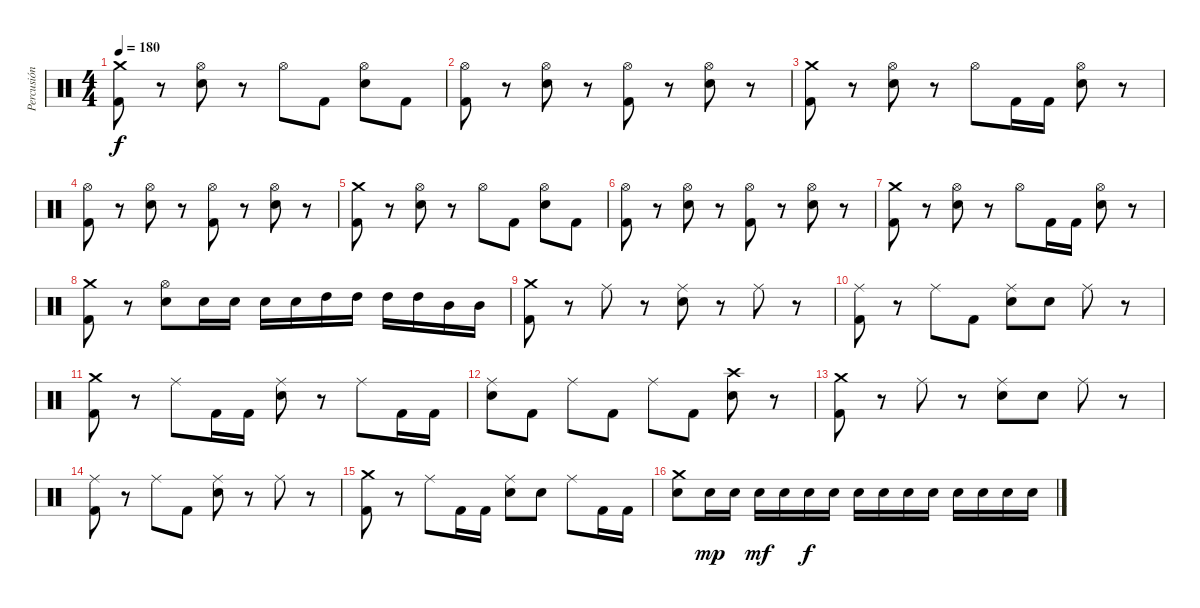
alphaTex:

\track ("Percusión" "Percusión") {instrument percussion}
\staff {score}
\articulation defaults
\ts (4 4)
\tempo 180
\clef neutral
\ks c
("Crash medium (hit)" "Kick (hit) 2").8{dy f} r.8 ("Hi-Hat (open)" "Electric Snare (hit)").8 r.8 "Hi-Hat (open)".8 "Kick (hit) 2".8 ("Hi-Hat (open)" "Electric Snare (hit)").8 "Kick (hit) 2".8 |
("Hi-Hat (open)" "Kick (hit) 2").8 r.8 ("Hi-Hat (open)" "Electric Snare (hit)").8 r.8 ("Hi-Hat (open)" "Kick (hit) 2").8 r.8 ("Hi-Hat (open)" "Electric Snare (hit)").8 r.8 |
("Crash medium (hit)" "Kick (hit) 2").8 r.8 ("Hi-Hat (open)" "Electric Snare (hit)").8 r.8 "Hi-Hat (open)".8 "Kick (hit) 2".16 "Kick (hit) 2".16 ("Hi-Hat (open)" "Electric Snare (hit)").8 r.8 |
("Hi-Hat (open)" "Kick (hit) 2").8 r.8 ("Hi-Hat (open)" "Electric Snare (hit)").8 r.8 ("Hi-Hat (open)" "Kick (hit) 2").8 r.8 ("Hi-Hat (open)" "Electric Snare (hit)").8 r.8 |
("Crash medium (hit)" "Kick (hit) 2").8 r.8 ("Hi-Hat (open)" "Electric Snare (hit)").8 r.8 "Hi-Hat (open)".8 "Kick (hit) 2".8 ("Hi-Hat (open)" "Electric Snare (hit)").8 "Kick (hit) 2".8 |
("Hi-Hat (open)" "Kick (hit) 2").8 r.8 ("Hi-Hat (open)" "Electric Snare (hit)").8 r.8 ("Hi-Hat (open)" "Kick (hit) 2").8 r.8 ("Hi-Hat (open)" "Electric Snare (hit)").8 r.8 |
("Crash medium (hit)" "Kick (hit) 2").8 r.8 ("Hi-Hat (open)" "Electric Snare (hit)").8 r.8 "Hi-Hat (open)".8 "Kick (hit) 2".16 "Kick (hit) 2".16 ("Hi-Hat (open)" "Electric Snare (hit)").8 r.8 |
("Crash medium (hit)" "Kick (hit) 2").8 r.8 ("Hi-Hat (open)" "Electric Snare (hit)").8 "Electric Snare (hit)".16 "Electric Snare (hit)".16 "Electric Snare (hit)".16 "Electric Snare (hit)".16 "High Tom (hit)".16 "High Tom (hit)".16 "High Tom (hit)".16 "High Tom (hit)".16 "Mid Tom (hit)".16 "Mid Tom (hit)".16 |
("Crash medium (hit)" "Kick (hit) 2").8 r.8 "Ride (middle)".8 r.8 ("Ride (middle)" "Electric Snare (hit)").8 r.8 "Ride (middle)".8 r.8 |
("Ride (middle)" "Kick (hit) 2").8 r.8 "Ride (middle)".8 "Kick (hit) 2".8 ("Ride (middle)" "Electric Snare (hit)").8 "Electric Snare (hit)".8 "Ride (middle)".8 r.8 |
("Crash medium (hit)" "Kick (hit) 2").8 r.8 "Ride (middle)".8 "Kick (hit) 2".16 "Kick (hit) 2".16 ("Ride (middle)" "Electric Snare (hit)").8 r.8 "Ride (middle)".8 "Kick (hit) 2".16 "Kick (hit) 2".16 |
("Ride (middle)" "Electric Snare (hit)").8 "Kick (hit) 2".8 "Ride (middle)".8 "Kick (hit) 2".8 "Ride (middle)".8 "Kick (hit) 2".8 ("Crash high (hit)" "Electric Snare (hit)").8 r.8 |
("Crash medium (hit)" "Kick (hit) 2").8 r.8 "Ride (middle)".8 r.8 ("Ride (middle)" "Electric Snare (hit)").8 "Electric Snare (hit)".8 "Ride (middle)".8 r.8 |
("Ride (middle)" "Kick (hit) 2").8 r.8 "Ride (middle)".8 "Kick (hit) 2".8 ("Ride (middle)" "Electric Snare (hit)").8 r.8 "Ride (middle)".8 r.8 |
("Crash medium (hit)" "Kick (hit) 2").8 r.8 "Ride (middle)".8 "Kick (hit) 2".16 "Kick (hit) 2".16 ("Ride (middle)" "Electric Snare (hit)").8 "Electric Snare (hit)".8 "Ride (middle)".8 "Kick (hit) 2".16 "Kick (hit) 2".16 |
("Crash medium (hit)" "Electric Snare (hit)").8 "Electric Snare (hit)".16{dy mp} "Electric Snare (hit)".16 "Electric Snare (hit)".16{dy mf} "Electric Snare (hit)".16 "Electric Snare (hit)".16{dy f} "Electric Snare (hit)".16 "Electric Snare (hit)".16 "Electric Snare (hit)".16 "Electric Snare (hit)".16 "Electric Snare (hit)".16 "Electric Snare (hit)".16 "Electric Snare (hit)".16 "Electric Snare (hit)".16 "Electric Snare (hit)".16
